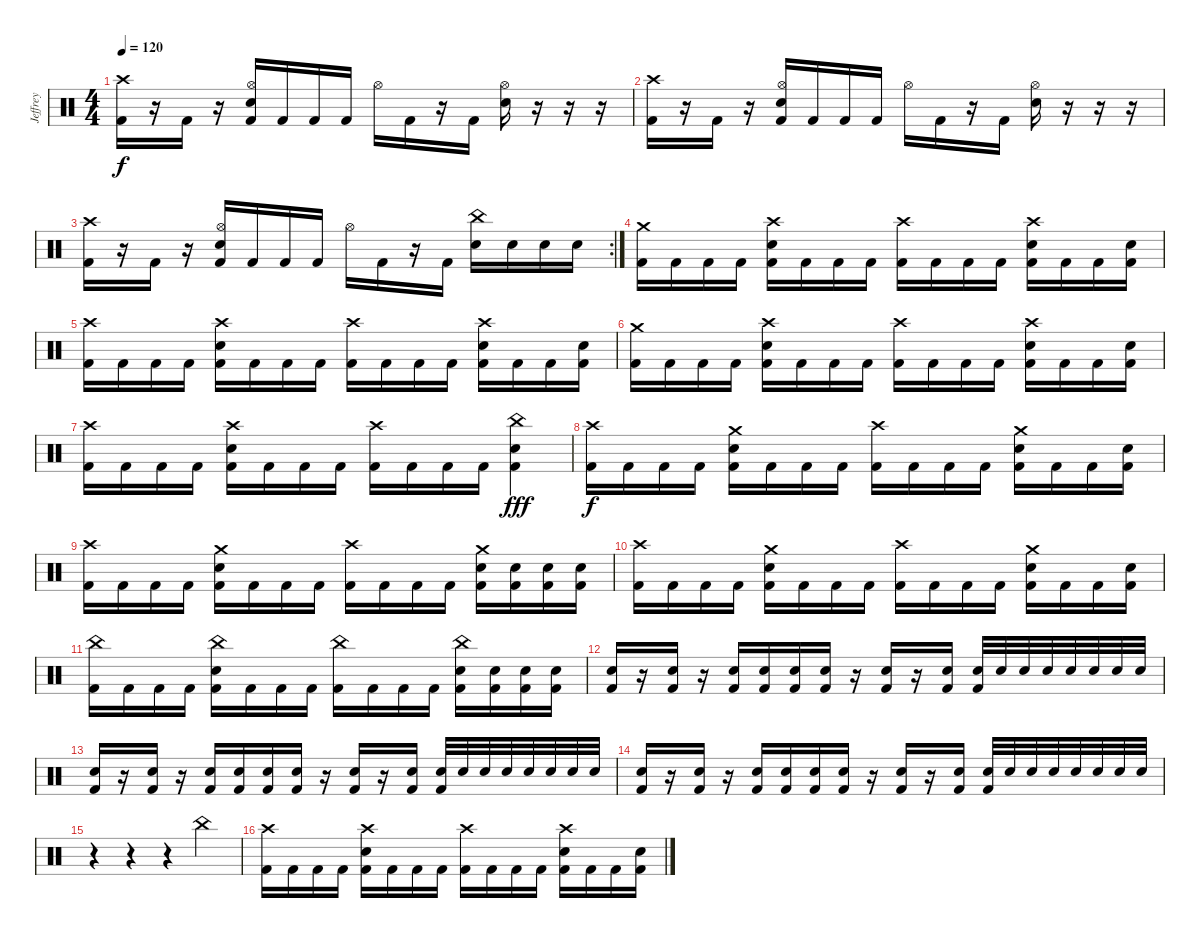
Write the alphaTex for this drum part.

\track ("Jeffrey" "Jeffrey") {instrument percussion}
\staff {score}
\articulation defaults
\ts (4 4)
\tempo 120
\clef neutral
\ks c
("Crash high (hit)" "Kick (hit) 2").16{dy f} r.16 "Kick (hit) 2".16 r.16 ("Hi-Hat (open)" "Electric Snare (hit)" "Kick (hit) 2").16 "Kick (hit) 2".16 "Kick (hit) 2".16 "Kick (hit) 2".16 "Hi-Hat (open)".16 "Kick (hit) 2".16 r.16 "Kick (hit) 2".16 ("Hi-Hat (open)" "Electric Snare (hit)").16 r.16 r.16 r.16 |
("Crash high (hit)" "Kick (hit) 2").16 r.16 "Kick (hit) 2".16 r.16 ("Hi-Hat (open)" "Electric Snare (hit)" "Kick (hit) 2").16 "Kick (hit) 2".16 "Kick (hit) 2".16 "Kick (hit) 2".16 "Hi-Hat (open)".16 "Kick (hit) 2".16 r.16 "Kick (hit) 2".16 ("Hi-Hat (open)" "Electric Snare (hit)").16 r.16 r.16 r.16 |
\rc 2
("Crash high (hit)" "Kick (hit) 2").16 r.16 "Kick (hit) 2".16 r.16 ("Hi-Hat (open)" "Electric Snare (hit)" "Kick (hit) 2").16 "Kick (hit) 2".16 "Kick (hit) 2".16 "Kick (hit) 2".16 "Hi-Hat (open)".16 "Kick (hit) 2".16 r.16 "Kick (hit) 2".16 ("China (hit)" "Electric Snare (hit)").16 "Electric Snare (hit)".16 "Electric Snare (hit)".16 "Electric Snare (hit)".16 |
("Crash medium (hit)" "Kick (hit) 2").16 "Kick (hit) 2".16 "Kick (hit) 2".16 "Kick (hit) 2".16 ("Crash high (hit)" "Electric Snare (hit)" "Kick (hit) 2").16 "Kick (hit) 2".16 "Kick (hit) 2".16 "Kick (hit) 2".16 ("Crash high (hit)" "Kick (hit) 2").16 "Kick (hit) 2".16 "Kick (hit) 2".16 "Kick (hit) 2".16 ("Crash high (hit)" "Electric Snare (hit)" "Kick (hit) 2").16 "Kick (hit) 2".16 "Kick (hit) 2".16 ("Electric Snare (hit)" "Kick (hit) 2").16 |
("Crash high (hit)" "Kick (hit) 2").16 "Kick (hit) 2".16 "Kick (hit) 2".16 "Kick (hit) 2".16 ("Crash high (hit)" "Electric Snare (hit)" "Kick (hit) 2").16 "Kick (hit) 2".16 "Kick (hit) 2".16 "Kick (hit) 2".16 ("Crash high (hit)" "Kick (hit) 2").16 "Kick (hit) 2".16 "Kick (hit) 2".16 "Kick (hit) 2".16 ("Crash high (hit)" "Electric Snare (hit)" "Kick (hit) 2").16 "Kick (hit) 2".16 "Kick (hit) 2".16 ("Electric Snare (hit)" "Kick (hit) 2").16 |
("Crash medium (hit)" "Kick (hit) 2").16 "Kick (hit) 2".16 "Kick (hit) 2".16 "Kick (hit) 2".16 ("Crash high (hit)" "Electric Snare (hit)" "Kick (hit) 2").16 "Kick (hit) 2".16 "Kick (hit) 2".16 "Kick (hit) 2".16 ("Crash high (hit)" "Kick (hit) 2").16 "Kick (hit) 2".16 "Kick (hit) 2".16 "Kick (hit) 2".16 ("Crash high (hit)" "Electric Snare (hit)" "Kick (hit) 2").16 "Kick (hit) 2".16 "Kick (hit) 2".16 ("Electric Snare (hit)" "Kick (hit) 2").16 |
("Crash high (hit)" "Kick (hit) 2").16 "Kick (hit) 2".16 "Kick (hit) 2".16 "Kick (hit) 2".16 ("Crash high (hit)" "Electric Snare (hit)" "Kick (hit) 2").16 "Kick (hit) 2".16 "Kick (hit) 2".16 "Kick (hit) 2".16 ("Crash high (hit)" "Kick (hit) 2").16 "Kick (hit) 2".16 "Kick (hit) 2".16 "Kick (hit) 2".16 ("China (hit)" "Electric Snare (hit)" "Kick (hit) 2").4{dy fff} |
("Crash high (hit)" "Kick (hit) 2").16{dy f} "Kick (hit) 2".16 "Kick (hit) 2".16 "Kick (hit) 2".16 ("Crash medium (hit)" "Electric Snare (hit)" "Kick (hit) 2").16 "Kick (hit) 2".16 "Kick (hit) 2".16 "Kick (hit) 2".16 ("Crash high (hit)" "Kick (hit) 2").16 "Kick (hit) 2".16 "Kick (hit) 2".16 "Kick (hit) 2".16 ("Crash medium (hit)" "Electric Snare (hit)" "Kick (hit) 2").16 "Kick (hit) 2".16 "Kick (hit) 2".16 ("Electric Snare (hit)" "Kick (hit) 2").16 |
("Crash high (hit)" "Kick (hit) 2").16 "Kick (hit) 2".16 "Kick (hit) 2".16 "Kick (hit) 2".16 ("Crash medium (hit)" "Electric Snare (hit)" "Kick (hit) 2").16 "Kick (hit) 2".16 "Kick (hit) 2".16 "Kick (hit) 2".16 ("Crash high (hit)" "Kick (hit) 2").16 "Kick (hit) 2".16 "Kick (hit) 2".16 "Kick (hit) 2".16 ("Crash medium (hit)" "Electric Snare (hit)" "Kick (hit) 2").16 ("Electric Snare (hit)" "Kick (hit) 2").16 ("Electric Snare (hit)" "Kick (hit) 2").16 ("Electric Snare (hit)" "Kick (hit) 2").16 |
("Crash high (hit)" "Kick (hit) 2").16 "Kick (hit) 2".16 "Kick (hit) 2".16 "Kick (hit) 2".16 ("Crash medium (hit)" "Electric Snare (hit)" "Kick (hit) 2").16 "Kick (hit) 2".16 "Kick (hit) 2".16 "Kick (hit) 2".16 ("Crash high (hit)" "Kick (hit) 2").16 "Kick (hit) 2".16 "Kick (hit) 2".16 "Kick (hit) 2".16 ("Crash medium (hit)" "Electric Snare (hit)" "Kick (hit) 2").16 "Kick (hit) 2".16 "Kick (hit) 2".16 ("Electric Snare (hit)" "Kick (hit) 2").16 |
("China (hit)" "Kick (hit) 2").16 "Kick (hit) 2".16 "Kick (hit) 2".16 "Kick (hit) 2".16 ("China (hit)" "Electric Snare (hit)" "Kick (hit) 2").16 "Kick (hit) 2".16 "Kick (hit) 2".16 "Kick (hit) 2".16 ("China (hit)" "Kick (hit) 2").16 "Kick (hit) 2".16 "Kick (hit) 2".16 "Kick (hit) 2".16 ("China (hit)" "Electric Snare (hit)" "Kick (hit) 2").16 ("Electric Snare (hit)" "Kick (hit) 2").16 ("Electric Snare (hit)" "Kick (hit) 2").16 ("Electric Snare (hit)" "Kick (hit) 2").16 |
("Electric Snare (hit)" "Kick (hit) 2").16 r.16 ("Electric Snare (hit)" "Kick (hit) 2").16 r.16 ("Electric Snare (hit)" "Kick (hit) 2").16 ("Electric Snare (hit)" "Kick (hit) 2").16 ("Electric Snare (hit)" "Kick (hit) 2").16 ("Electric Snare (hit)" "Kick (hit) 2").16 r.16 ("Electric Snare (hit)" "Kick (hit) 2").16 r.16 ("Electric Snare (hit)" "Kick (hit) 2").16 ("Electric Snare (hit)" "Kick (hit) 2").32 "Electric Snare (hit)".32 "Electric Snare (hit)".32 "Electric Snare (hit)".32 "Electric Snare (hit)".32 "Electric Snare (hit)".32 "Electric Snare (hit)".32 "Electric Snare (hit)".32 |
("Electric Snare (hit)" "Kick (hit) 2").16 r.16 ("Electric Snare (hit)" "Kick (hit) 2").16 r.16 ("Electric Snare (hit)" "Kick (hit) 2").16 ("Electric Snare (hit)" "Kick (hit) 2").16 ("Electric Snare (hit)" "Kick (hit) 2").16 ("Electric Snare (hit)" "Kick (hit) 2").16 r.16 ("Electric Snare (hit)" "Kick (hit) 2").16 r.16 ("Electric Snare (hit)" "Kick (hit) 2").16 ("Electric Snare (hit)" "Kick (hit) 2").32 "Electric Snare (hit)".32 "Electric Snare (hit)".32 "Electric Snare (hit)".32 "Electric Snare (hit)".32 "Electric Snare (hit)".32 "Electric Snare (hit)".32 "Electric Snare (hit)".32 |
("Electric Snare (hit)" "Kick (hit) 2").16 r.16 ("Electric Snare (hit)" "Kick (hit) 2").16 r.16 ("Electric Snare (hit)" "Kick (hit) 2").16 ("Electric Snare (hit)" "Kick (hit) 2").16 ("Electric Snare (hit)" "Kick (hit) 2").16 ("Electric Snare (hit)" "Kick (hit) 2").16 r.16 ("Electric Snare (hit)" "Kick (hit) 2").16 r.16 ("Electric Snare (hit)" "Kick (hit) 2").16 ("Electric Snare (hit)" "Kick (hit) 2").32 "Electric Snare (hit)".32 "Electric Snare (hit)".32 "Electric Snare (hit)".32 "Electric Snare (hit)".32 "Electric Snare (hit)".32 "Electric Snare (hit)".32 "Electric Snare (hit)".32 |
r.4 r.4 r.4 "China (hit)".4 |
("Crash high (hit)" "Kick (hit) 2").16 "Kick (hit) 2".16 "Kick (hit) 2".16 "Kick (hit) 2".16 ("Crash high (hit)" "Electric Snare (hit)" "Kick (hit) 2").16 "Kick (hit) 2".16 "Kick (hit) 2".16 "Kick (hit) 2".16 ("Crash high (hit)" "Kick (hit) 2").16 "Kick (hit) 2".16 "Kick (hit) 2".16 "Kick (hit) 2".16 ("Crash high (hit)" "Electric Snare (hit)" "Kick (hit) 2").16 "Kick (hit) 2".16 "Kick (hit) 2".16 ("Electric Snare (hit)" "Kick (hit) 2").16
